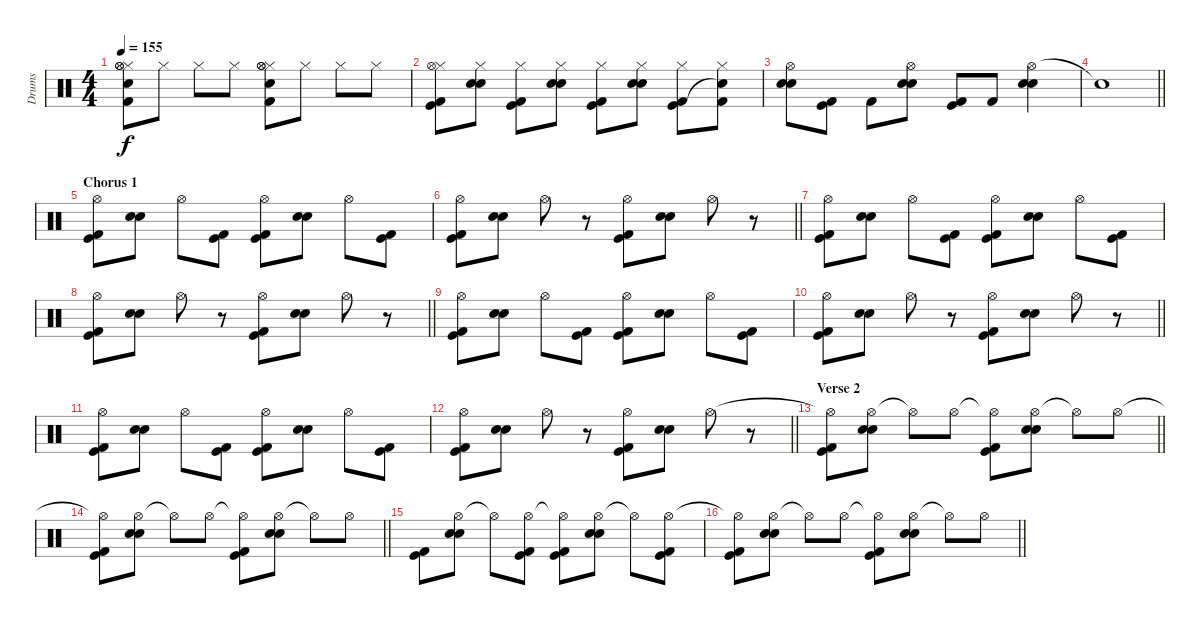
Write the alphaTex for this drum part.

\track ("Drums" "Drums") {instrument percussion}
\staff {score}
\articulation defaults
\ts (4 4)
\tempo 155
\clef neutral
\ks c
("Hi-Hat (closed)" "Hi-Hat (open)" "Electric Snare (hit)" "Hi-Hat (open)" "Kick (hit) 2").8{dy f} "Hi-Hat (closed)".8 "Hi-Hat (closed)".8 "Hi-Hat (closed)".8 ("Hi-Hat (closed)" "Hi-Hat (open)" "Electric Snare (hit)" "Hi-Hat (open)" "Kick (hit) 2").8 "Hi-Hat (closed)".8 "Hi-Hat (closed)".8 "Hi-Hat (closed)".8 |
("Hi-Hat (closed)" "Hi-Hat (open)" "Kick (hit)" "Kick (hit) 2").8 ("Hi-Hat (closed)" "Electric Snare (hit)" "Electric Snare (hit)").8 ("Hi-Hat (closed)" "Kick (hit)" "Kick (hit) 2").8 ("Hi-Hat (closed)" "Electric Snare (hit)" "Electric Snare (hit)").8 ("Hi-Hat (closed)" "Kick (hit)" "Kick (hit) 2").8 ("Hi-Hat (closed)" "Electric Snare (hit)" "Electric Snare (hit)").8 ("Hi-Hat (closed)" "Kick (hit)" "Kick (hit) 2").8 ("Hi-Hat (closed)" "Snare (hit)"{t} "Kick (hit) 2").8 |
("Hi-Hat (open)" "Electric Snare (hit)" "Electric Snare (hit)").8 ("Kick (hit)" "Kick (hit) 2").8 "Kick (hit) 2".8 ("Hi-Hat (open)" "Electric Snare (hit)" "Electric Snare (hit)").8 ("Kick (hit)" "Kick (hit) 2").8 "Kick (hit) 2".8 ("Hi-Hat (open)" "Electric Snare (hit)" "Electric Snare (hit)").4 |
\barLineRight lightlight "Snare (hit)"{t}.1
|
\section ("" "Chorus 1")
("Hi-Hat (open)" "Kick (hit)" "Kick (hit) 2").8 ("Electric Snare (hit)" "Electric Snare (hit)").8 "Hi-Hat (open)".8 ("Kick (hit)" "Kick (hit) 2").8 ("Hi-Hat (open)" "Kick (hit)" "Kick (hit) 2").8 ("Electric Snare (hit)" "Electric Snare (hit)").8 "Hi-Hat (open)".8 ("Kick (hit)" "Kick (hit) 2").8 |
\barLineRight lightlight
("Hi-Hat (open)" "Kick (hit)" "Kick (hit) 2").8 ("Electric Snare (hit)" "Electric Snare (hit)").8 "Hi-Hat (open)".8 r.8 ("Hi-Hat (open)" "Kick (hit)" "Kick (hit) 2").8 ("Electric Snare (hit)" "Electric Snare (hit)").8 "Hi-Hat (open)".8 r.8 |
("Hi-Hat (open)" "Kick (hit)" "Kick (hit) 2").8 ("Electric Snare (hit)" "Electric Snare (hit)").8 "Hi-Hat (open)".8 ("Kick (hit)" "Kick (hit) 2").8 ("Hi-Hat (open)" "Kick (hit)" "Kick (hit) 2").8 ("Electric Snare (hit)" "Electric Snare (hit)").8 "Hi-Hat (open)".8 ("Kick (hit)" "Kick (hit) 2").8 |
\barLineRight lightlight
("Hi-Hat (open)" "Kick (hit)" "Kick (hit) 2").8 ("Electric Snare (hit)" "Electric Snare (hit)").8 "Hi-Hat (open)".8 r.8 ("Hi-Hat (open)" "Kick (hit)" "Kick (hit) 2").8 ("Electric Snare (hit)" "Electric Snare (hit)").8 "Hi-Hat (open)".8 r.8 |
("Hi-Hat (open)" "Kick (hit)" "Kick (hit) 2").8 ("Electric Snare (hit)" "Electric Snare (hit)").8 "Hi-Hat (open)".8 ("Kick (hit)" "Kick (hit) 2").8 ("Hi-Hat (open)" "Kick (hit)" "Kick (hit) 2").8 ("Electric Snare (hit)" "Electric Snare (hit)").8 "Hi-Hat (open)".8 ("Kick (hit)" "Kick (hit) 2").8 |
\barLineRight lightlight
("Hi-Hat (open)" "Kick (hit)" "Kick (hit) 2").8 ("Electric Snare (hit)" "Electric Snare (hit)").8 "Hi-Hat (open)".8 r.8 ("Hi-Hat (open)" "Kick (hit)" "Kick (hit) 2").8 ("Electric Snare (hit)" "Electric Snare (hit)").8 "Hi-Hat (open)".8 r.8 |
("Hi-Hat (open)" "Kick (hit)" "Kick (hit) 2").8 ("Electric Snare (hit)" "Electric Snare (hit)").8 "Hi-Hat (open)".8 ("Kick (hit)" "Kick (hit) 2").8 ("Hi-Hat (open)" "Kick (hit)" "Kick (hit) 2").8 ("Electric Snare (hit)" "Electric Snare (hit)").8 "Hi-Hat (open)".8 ("Kick (hit)" "Kick (hit) 2").8 |
\barLineRight lightlight
("Hi-Hat (open)" "Kick (hit)" "Kick (hit) 2").8 ("Electric Snare (hit)" "Electric Snare (hit)").8 "Hi-Hat (open)".8 r.8 ("Hi-Hat (open)" "Kick (hit)" "Kick (hit) 2").8 ("Electric Snare (hit)" "Electric Snare (hit)").8 "Hi-Hat (open)".8 r.8 |
\section ("" "Verse 2")
\barLineRight lightlight
("Hi-Hat (open)"{t} "Kick (hit)" "Kick (hit) 2").8 ("Hi-Hat (open)" "Electric Snare (hit)" "Electric Snare (hit)").8 "Hi-Hat (open)"{t}.8 "Hi-Hat (open)".8 ("Hi-Hat (open)"{t} "Kick (hit)" "Kick (hit) 2").8 ("Hi-Hat (open)" "Electric Snare (hit)" "Electric Snare (hit)").8 "Hi-Hat (open)"{t}.8 "Hi-Hat (open)".8 |
\barLineRight lightlight
("Hi-Hat (open)"{t} "Kick (hit)" "Kick (hit) 2").8 ("Hi-Hat (open)" "Electric Snare (hit)" "Electric Snare (hit)").8 "Hi-Hat (open)"{t}.8 "Hi-Hat (open)".8 ("Hi-Hat (open)"{t} "Kick (hit)" "Kick (hit) 2").8 ("Hi-Hat (open)" "Electric Snare (hit)" "Electric Snare (hit)").8 "Hi-Hat (open)"{t}.8 "Hi-Hat (open)".8 |
("Kick (hit)" "Kick (hit) 2").8 ("Hi-Hat (open)" "Electric Snare (hit)" "Electric Snare (hit)").8 "Hi-Hat (open)"{t}.8 ("Hi-Hat (open)" "Kick (hit)" "Kick (hit) 2").8 ("Hi-Hat (open)"{t} "Kick (hit)" "Kick (hit) 2").8 ("Hi-Hat (open)" "Electric Snare (hit)" "Electric Snare (hit)").8 "Hi-Hat (open)"{t}.8 ("Hi-Hat (open)" "Kick (hit)" "Kick (hit) 2").8 |
\barLineRight lightlight
("Hi-Hat (open)"{t} "Kick (hit)" "Kick (hit) 2").8 ("Hi-Hat (open)" "Electric Snare (hit)" "Electric Snare (hit)").8 "Hi-Hat (open)"{t}.8 "Hi-Hat (open)".8 ("Hi-Hat (open)"{t} "Kick (hit)" "Kick (hit) 2").8 ("Hi-Hat (open)" "Electric Snare (hit)" "Electric Snare (hit)").8 "Hi-Hat (open)"{t}.8 "Hi-Hat (open)".8
